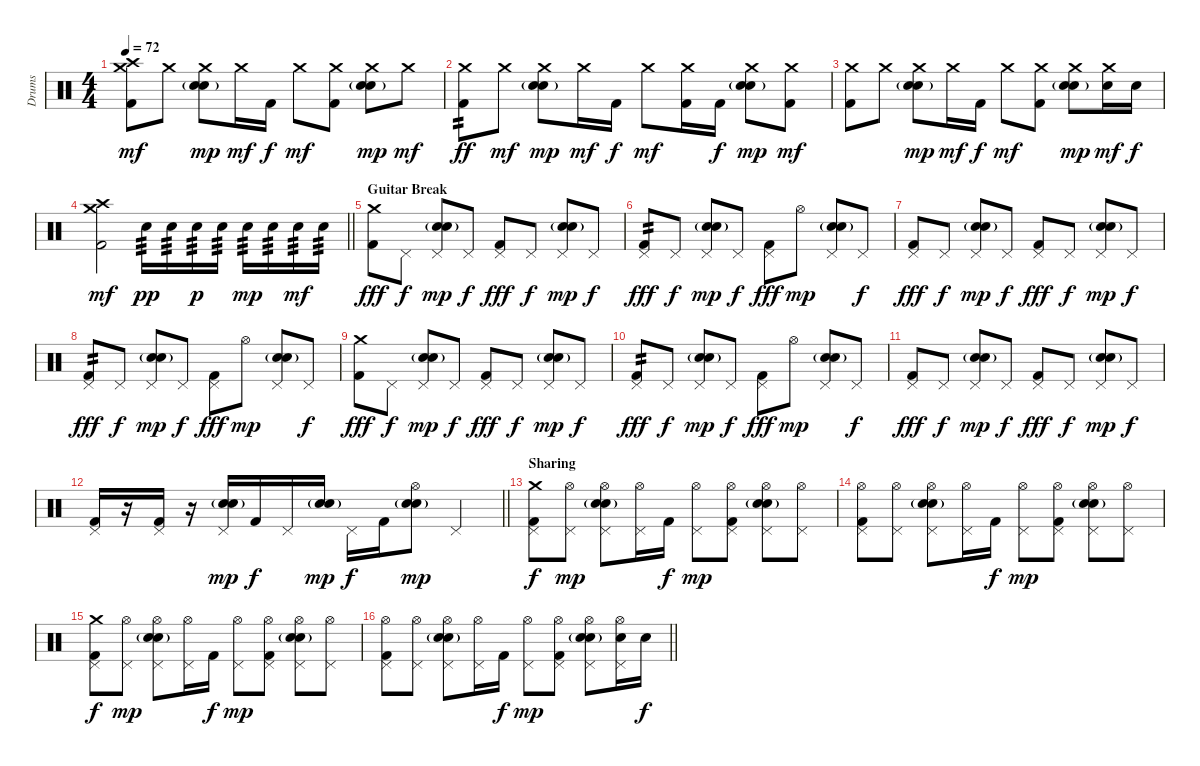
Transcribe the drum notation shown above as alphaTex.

\track ("Drums" "Drums") {instrument percussion}
\staff {score}
\articulation defaults
\ts (4 4)
\tempo 72
\clef neutral
\ks c
("Crash medium (hit)" "Crash high (hit)" "Kick (hit) 2").8{dy mf} "Crash medium (hit)".8 ("Crash medium (hit)" "Snare (hit) 2" "Electric Snare (hit)"{g}).8{dy mp} "Crash medium (hit)".16{dy mf} "Kick (hit) 2".16{dy f} "Crash medium (hit)".8{dy mf} ("Crash medium (hit)" "Kick (hit) 2").8 ("Crash medium (hit)" "Snare (hit) 2" "Electric Snare (hit)"{g}).8{dy mp} "Crash medium (hit)".8{dy mf} |
("Crash medium (hit)" "Kick (hit) 2").8{tp 2 dy ff} "Crash medium (hit)".8{dy mf} ("Crash medium (hit)" "Snare (hit) 2" "Electric Snare (hit)"{g}).8{dy mp} "Crash medium (hit)".16{dy mf} "Kick (hit) 2".16{dy f} "Crash medium (hit)".8{dy mf} ("Crash medium (hit)" "Kick (hit) 2").16 "Kick (hit) 2".16{dy f} ("Crash medium (hit)" "Snare (hit) 2" "Electric Snare (hit)"{g}).8{dy mp} ("Crash medium (hit)" "Kick (hit) 2").8{dy mf} |
("Crash medium (hit)" "Kick (hit) 2").8 "Crash medium (hit)".8 ("Crash medium (hit)" "Snare (hit) 2" "Electric Snare (hit)"{g}).8{dy mp} "Crash medium (hit)".16{dy mf} "Kick (hit) 2".16{dy f} "Crash medium (hit)".8{dy mf} ("Crash medium (hit)" "Kick (hit) 2").8 ("Crash medium (hit)" "Snare (hit) 2" "Electric Snare (hit)"{g}).8{dy mp} ("Crash medium (hit)" "Electric Snare (hit)").16{dy mf} "Electric Snare (hit)".16{dy f} |
\barLineRight lightlight
("Crash medium (hit)" "Crash high (hit)" "Kick (hit) 2").2{dy mf} "Electric Snare (hit)".16{bd 240 tp 3 dy pp} "Electric Snare (hit)".16{bd 240 tp 3} "Electric Snare (hit)".16{bd 240 tp 3 dy p} "Electric Snare (hit)".16{bd 240 tp 3} "Electric Snare (hit)".16{bd 240 tp 3 dy mp} "Electric Snare (hit)".16{bd 240 tp 3} "Electric Snare (hit)".16{bd 240 tp 3 dy mf} "Electric Snare (hit)".16{bd 240 tp 3} |
\section ("" "Guitar Break")
("Crash medium (hit)" "Kick (hit) 2").8{dy fff} "Pedal Hi-Hat (hit)".8{dy f} ("Pedal Hi-Hat (hit)" "Snare (hit) 2" "Electric Snare (hit)"{g}).8{dy mp} "Pedal Hi-Hat (hit)".8{dy f} ("Pedal Hi-Hat (hit)" "Kick (hit) 2").8{dy fff} "Pedal Hi-Hat (hit)".8{dy f} ("Pedal Hi-Hat (hit)" "Snare (hit) 2" "Electric Snare (hit)"{g}).8{dy mp} "Pedal Hi-Hat (hit)".8{dy f} |
("Pedal Hi-Hat (hit)" "Kick (hit) 2").8{tp 2 dy fff} "Pedal Hi-Hat (hit)".8{dy f} ("Pedal Hi-Hat (hit)" "Snare (hit) 2" "Electric Snare (hit)"{g}).8{dy mp} "Pedal Hi-Hat (hit)".8{dy f} ("Pedal Hi-Hat (hit)" "Kick (hit) 2").8{dy fff} "Hi-Hat (open)".8{dy mp} ("Pedal Hi-Hat (hit)" "Snare (hit) 2" "Electric Snare (hit)"{g}).8 "Pedal Hi-Hat (hit)".8{dy f} |
("Pedal Hi-Hat (hit)" "Kick (hit) 2").8{dy fff} "Pedal Hi-Hat (hit)".8{dy f} ("Pedal Hi-Hat (hit)" "Snare (hit) 2" "Electric Snare (hit)"{g}).8{dy mp} "Pedal Hi-Hat (hit)".8{dy f} ("Pedal Hi-Hat (hit)" "Kick (hit) 2").8{dy fff} "Pedal Hi-Hat (hit)".8{dy f} ("Pedal Hi-Hat (hit)" "Snare (hit) 2" "Electric Snare (hit)"{g}).8{dy mp} "Pedal Hi-Hat (hit)".8{dy f} |
("Pedal Hi-Hat (hit)" "Kick (hit) 2").8{tp 2 dy fff} "Pedal Hi-Hat (hit)".8{dy f} ("Pedal Hi-Hat (hit)" "Snare (hit) 2" "Electric Snare (hit)"{g}).8{dy mp} "Pedal Hi-Hat (hit)".8{dy f} ("Pedal Hi-Hat (hit)" "Kick (hit) 2").8{dy fff} "Hi-Hat (open)".8{dy mp} ("Pedal Hi-Hat (hit)" "Snare (hit) 2" "Electric Snare (hit)"{g}).8 "Pedal Hi-Hat (hit)".8{dy f} |
("Crash medium (hit)" "Kick (hit) 2").8{dy fff} "Pedal Hi-Hat (hit)".8{dy f} ("Pedal Hi-Hat (hit)" "Snare (hit) 2" "Electric Snare (hit)"{g}).8{dy mp} "Pedal Hi-Hat (hit)".8{dy f} ("Pedal Hi-Hat (hit)" "Kick (hit) 2").8{dy fff} "Pedal Hi-Hat (hit)".8{dy f} ("Pedal Hi-Hat (hit)" "Snare (hit) 2" "Electric Snare (hit)"{g}).8{dy mp} "Pedal Hi-Hat (hit)".8{dy f} |
("Pedal Hi-Hat (hit)" "Kick (hit) 2").8{tp 2 dy fff} "Pedal Hi-Hat (hit)".8{dy f} ("Pedal Hi-Hat (hit)" "Snare (hit) 2" "Electric Snare (hit)"{g}).8{dy mp} "Pedal Hi-Hat (hit)".8{dy f} ("Pedal Hi-Hat (hit)" "Kick (hit) 2").8{dy fff} "Hi-Hat (open)".8{dy mp} ("Pedal Hi-Hat (hit)" "Snare (hit) 2" "Electric Snare (hit)"{g}).8 "Pedal Hi-Hat (hit)".8{dy f} |
("Pedal Hi-Hat (hit)" "Kick (hit) 2").8{dy fff} "Pedal Hi-Hat (hit)".8{dy f} ("Pedal Hi-Hat (hit)" "Snare (hit) 2" "Electric Snare (hit)"{g}).8{dy mp} "Pedal Hi-Hat (hit)".8{dy f} ("Pedal Hi-Hat (hit)" "Kick (hit) 2").8{dy fff} "Pedal Hi-Hat (hit)".8{dy f} ("Pedal Hi-Hat (hit)" "Snare (hit) 2" "Electric Snare (hit)"{g}).8{dy mp} "Pedal Hi-Hat (hit)".8{dy f} |
\barLineRight lightlight
("Pedal Hi-Hat (hit)" "Kick (hit) 2").16 r.16 ("Pedal Hi-Hat (hit)" "Kick (hit) 2").16 r.16 ("Pedal Hi-Hat (hit)" "Snare (hit) 2" "Electric Snare (hit)"{g}).16{dy mp} "Kick (hit) 2".16{dy f} "Pedal Hi-Hat (hit)".16 ("Snare (hit) 2" "Electric Snare (hit)"{g}).16{dy mp} "Pedal Hi-Hat (hit)".16{dy f} "Kick (hit) 2".16 ("Hi-Hat (open)" "Snare (hit) 2" "Electric Snare (hit)"{g}).8{dy mp} "Pedal Hi-Hat (hit)".4 |
\section ("" "Sharing")
("Pedal Hi-Hat (hit)" "Crash medium (hit)" "Kick (hit) 2").8{dy f} ("Pedal Hi-Hat (hit)" "Hi-Hat (open)").8{dy mp} ("Pedal Hi-Hat (hit)" "Hi-Hat (open)" "Snare (hit) 2" "Electric Snare (hit)"{g}).8 ("Pedal Hi-Hat (hit)" "Hi-Hat (open)").16 "Kick (hit) 2".16{dy f} ("Pedal Hi-Hat (hit)" "Hi-Hat (open)").8{dy mp} ("Pedal Hi-Hat (hit)" "Hi-Hat (open)" "Kick (hit) 2").8 ("Pedal Hi-Hat (hit)" "Hi-Hat (open)" "Snare (hit) 2" "Electric Snare (hit)"{g}).8 ("Pedal Hi-Hat (hit)" "Hi-Hat (open)").8 |
("Pedal Hi-Hat (hit)" "Hi-Hat (open)" "Kick (hit) 2").8 ("Pedal Hi-Hat (hit)" "Hi-Hat (open)").8 ("Pedal Hi-Hat (hit)" "Hi-Hat (open)" "Snare (hit) 2" "Electric Snare (hit)"{g}).8 ("Pedal Hi-Hat (hit)" "Hi-Hat (open)").16 "Kick (hit) 2".16{dy f} ("Pedal Hi-Hat (hit)" "Hi-Hat (open)").8{dy mp} ("Pedal Hi-Hat (hit)" "Hi-Hat (open)" "Kick (hit) 2").8 ("Pedal Hi-Hat (hit)" "Hi-Hat (open)" "Snare (hit) 2" "Electric Snare (hit)"{g}).8 ("Pedal Hi-Hat (hit)" "Hi-Hat (open)").8 |
("Pedal Hi-Hat (hit)" "Crash medium (hit)" "Kick (hit) 2").8{dy f} ("Pedal Hi-Hat (hit)" "Hi-Hat (open)").8{dy mp} ("Pedal Hi-Hat (hit)" "Hi-Hat (open)" "Snare (hit) 2" "Electric Snare (hit)"{g}).8 ("Pedal Hi-Hat (hit)" "Hi-Hat (open)").16 "Kick (hit) 2".16{dy f} ("Pedal Hi-Hat (hit)" "Hi-Hat (open)").8{dy mp} ("Pedal Hi-Hat (hit)" "Hi-Hat (open)" "Kick (hit) 2").8 ("Pedal Hi-Hat (hit)" "Hi-Hat (open)" "Snare (hit) 2" "Electric Snare (hit)"{g}).8 ("Pedal Hi-Hat (hit)" "Hi-Hat (open)").8 |
\barLineRight lightlight
("Pedal Hi-Hat (hit)" "Hi-Hat (open)" "Kick (hit) 2").8 ("Pedal Hi-Hat (hit)" "Hi-Hat (open)").8 ("Pedal Hi-Hat (hit)" "Hi-Hat (open)" "Snare (hit) 2" "Electric Snare (hit)"{g}).8 ("Pedal Hi-Hat (hit)" "Hi-Hat (open)").16 "Kick (hit) 2".16{dy f} ("Pedal Hi-Hat (hit)" "Hi-Hat (open)").8{dy mp} ("Pedal Hi-Hat (hit)" "Hi-Hat (open)" "Kick (hit) 2").8 ("Pedal Hi-Hat (hit)" "Hi-Hat (open)" "Snare (hit) 2" "Electric Snare (hit)"{g}).8 ("Pedal Hi-Hat (hit)" "Hi-Hat (open)" "Electric Snare (hit)").16 "Electric Snare (hit)".16{dy f}
